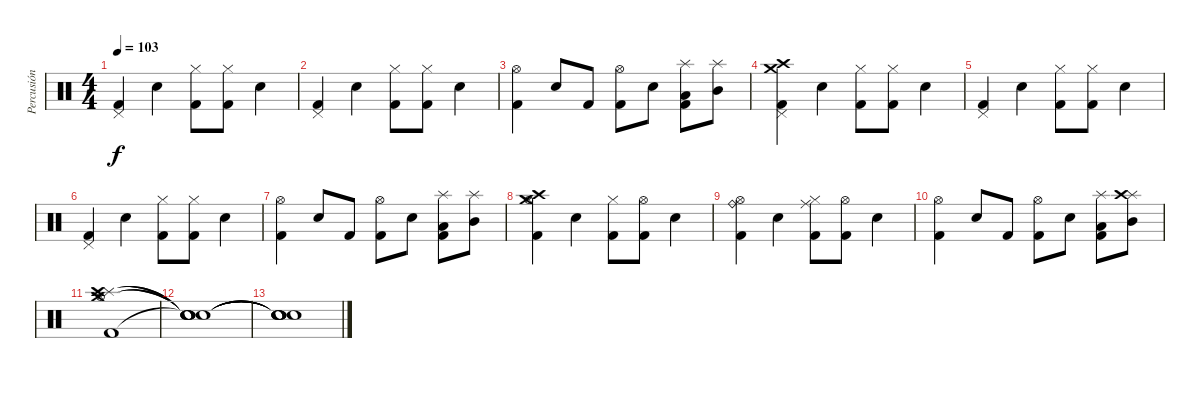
\track ("Percusión" "Percusión") {instrument percussion}
\staff {score}
\articulation defaults
\ts (4 4)
\tempo 103
\clef neutral
\ks c
("Pedal Hi-Hat (hit)" "Kick (hit) 2").4{dy f} "Electric Snare (hit)".4 ("Hi-Hat (closed)" "Kick (hit) 2").8 ("Hi-Hat (closed)" "Kick (hit) 2").8 "Electric Snare (hit)".4 |
("Pedal Hi-Hat (hit)" "Kick (hit) 2").4 "Electric Snare (hit)".4 ("Hi-Hat (closed)" "Kick (hit) 2").8 ("Hi-Hat (closed)" "Kick (hit) 2").8 "Electric Snare (hit)".4 |
("Hi-Hat (open)" "Kick (hit) 2").4 "Electric Snare (hit)".8 "Kick (hit) 2".8 ("Hi-Hat (open)" "Kick (hit) 2").8 "Electric Snare (hit)".8 ("Splash (hit)" "Low Tom (hit)" "Kick (hit) 2").8 ("Splash (hit)" "Mid Tom (hit)").8 |
("Crash medium (hit)" "Crash high (hit)" "Pedal Hi-Hat (hit)" "Kick (hit) 2").4 "Electric Snare (hit)".4 ("Hi-Hat (closed)" "Kick (hit) 2").8 ("Hi-Hat (closed)" "Kick (hit) 2").8 "Electric Snare (hit)".4 |
("Pedal Hi-Hat (hit)" "Kick (hit) 2").4 "Electric Snare (hit)".4 ("Hi-Hat (closed)" "Kick (hit) 2").8 ("Hi-Hat (closed)" "Kick (hit) 2").8 "Electric Snare (hit)".4 |
("Pedal Hi-Hat (hit)" "Kick (hit) 2").4 "Electric Snare (hit)".4 ("Hi-Hat (closed)" "Kick (hit) 2").8 ("Hi-Hat (closed)" "Kick (hit) 2").8 "Electric Snare (hit)".4 |
("Hi-Hat (open)" "Kick (hit) 2").4 "Electric Snare (hit)".8 "Kick (hit) 2".8 ("Hi-Hat (open)" "Kick (hit) 2").8 "Electric Snare (hit)".8 ("Splash (hit)" "Low Tom (hit)" "Kick (hit) 2").8 ("Splash (hit)" "Mid Tom (hit)").8 |
("Crash medium (hit)" "Crash high (hit)" "Hi-Hat (open)" "Kick (hit) 2").4 "Electric Snare (hit)".4 ("Hi-Hat (closed)" "Kick (hit) 2").8 ("Hi-Hat (open)" "Kick (hit) 2").8 "Electric Snare (hit)".4 |
("Ride (bell)" "Hi-Hat (open)" "Kick (hit) 2").4 "Electric Snare (hit)".4 ("Ride (middle)" "Hi-Hat (closed)" "Kick (hit) 2").8 ("Hi-Hat (open)" "Kick (hit) 2").8 "Electric Snare (hit)".4 |
("Hi-Hat (open)" "Kick (hit) 2").4 "Electric Snare (hit)".8 "Kick (hit) 2".8 ("Hi-Hat (open)" "Kick (hit) 2").8 "Electric Snare (hit)".8 ("Splash (hit)" "Low Tom (hit)" "Kick (hit) 2").8 ("Splash (hit)" "Crash high (hit)" "Mid Tom (hit)").8 |
("Splash (hit)" "Crash medium (hit)" "Crash high (hit)" "Hi-Hat (open)" "Kick (hit) 2").1 |
("Snare (hit)"{t} "Snare (hit)"{t} "Snare (hit)"{t} "Snare (hit)"{t} "Snare (hit)"{t}).1 |
("Snare (hit)"{t} "Snare (hit)"{t} "Snare (hit)"{t} "Snare (hit)"{t} "Snare (hit)"{t}).1
